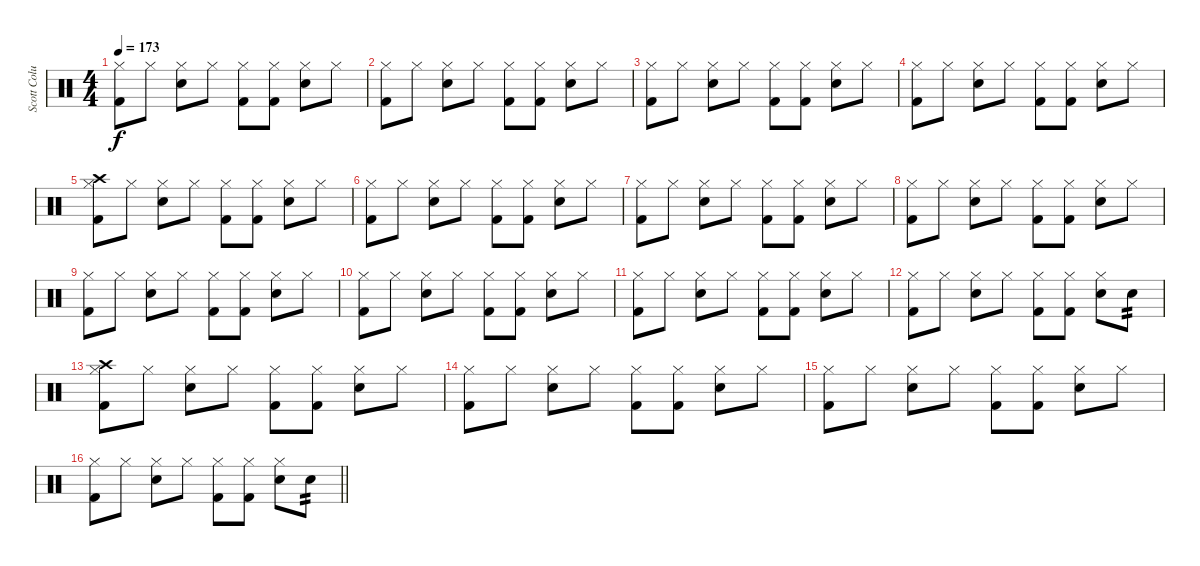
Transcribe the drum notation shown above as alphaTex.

\track ("Scott Columbus" "Scott Colu") {instrument percussion}
\staff {score}
\articulation defaults
\ts (4 4)
\tempo 173
\clef neutral
\ks c
("Kick (hit) 2" "Hi-Hat (closed)").8{dy f} "Hi-Hat (closed)".8 ("Snare (hit) 2" "Hi-Hat (closed)").8 "Hi-Hat (closed)".8 ("Kick (hit) 2" "Hi-Hat (closed)").8 ("Kick (hit) 2" "Hi-Hat (closed)").8 ("Snare (hit) 2" "Hi-Hat (closed)").8 "Hi-Hat (closed)".8 |
("Kick (hit) 2" "Hi-Hat (closed)").8 "Hi-Hat (closed)".8 ("Snare (hit) 2" "Hi-Hat (closed)").8 "Hi-Hat (closed)".8 ("Kick (hit) 2" "Hi-Hat (closed)").8 ("Kick (hit) 2" "Hi-Hat (closed)").8 ("Snare (hit) 2" "Hi-Hat (closed)").8 "Hi-Hat (closed)".8 |
("Kick (hit) 2" "Hi-Hat (closed)").8 "Hi-Hat (closed)".8 ("Snare (hit) 2" "Hi-Hat (closed)").8 "Hi-Hat (closed)".8 ("Kick (hit) 2" "Hi-Hat (closed)").8 ("Kick (hit) 2" "Hi-Hat (closed)").8 ("Snare (hit) 2" "Hi-Hat (closed)").8 "Hi-Hat (closed)".8 |
("Kick (hit) 2" "Hi-Hat (closed)").8 "Hi-Hat (closed)".8 ("Snare (hit) 2" "Hi-Hat (closed)").8 "Hi-Hat (closed)".8 ("Kick (hit) 2" "Hi-Hat (closed)").8 ("Kick (hit) 2" "Hi-Hat (closed)").8 ("Snare (hit) 2" "Hi-Hat (closed)").8 "Hi-Hat (closed)".8 |
("Kick (hit) 2" "Hi-Hat (closed)" "Crash high (hit)").8 "Hi-Hat (closed)".8 ("Snare (hit) 2" "Hi-Hat (closed)").8 "Hi-Hat (closed)".8 ("Kick (hit) 2" "Hi-Hat (closed)").8 ("Kick (hit) 2" "Hi-Hat (closed)").8 ("Snare (hit) 2" "Hi-Hat (closed)").8 "Hi-Hat (closed)".8 |
("Kick (hit) 2" "Hi-Hat (closed)").8 "Hi-Hat (closed)".8 ("Snare (hit) 2" "Hi-Hat (closed)").8 "Hi-Hat (closed)".8 ("Kick (hit) 2" "Hi-Hat (closed)").8 ("Kick (hit) 2" "Hi-Hat (closed)").8 ("Snare (hit) 2" "Hi-Hat (closed)").8 "Hi-Hat (closed)".8 |
("Kick (hit) 2" "Hi-Hat (closed)").8 "Hi-Hat (closed)".8 ("Snare (hit) 2" "Hi-Hat (closed)").8 "Hi-Hat (closed)".8 ("Kick (hit) 2" "Hi-Hat (closed)").8 ("Kick (hit) 2" "Hi-Hat (closed)").8 ("Snare (hit) 2" "Hi-Hat (closed)").8 "Hi-Hat (closed)".8 |
("Kick (hit) 2" "Hi-Hat (closed)").8 "Hi-Hat (closed)".8 ("Snare (hit) 2" "Hi-Hat (closed)").8 "Hi-Hat (closed)".8 ("Kick (hit) 2" "Hi-Hat (closed)").8 ("Kick (hit) 2" "Hi-Hat (closed)").8 ("Snare (hit) 2" "Hi-Hat (closed)").8 "Hi-Hat (closed)".8 |
("Kick (hit) 2" "Hi-Hat (closed)").8 "Hi-Hat (closed)".8 ("Snare (hit) 2" "Hi-Hat (closed)").8 "Hi-Hat (closed)".8 ("Kick (hit) 2" "Hi-Hat (closed)").8 ("Kick (hit) 2" "Hi-Hat (closed)").8 ("Snare (hit) 2" "Hi-Hat (closed)").8 "Hi-Hat (closed)".8 |
("Kick (hit) 2" "Hi-Hat (closed)").8 "Hi-Hat (closed)".8 ("Snare (hit) 2" "Hi-Hat (closed)").8 "Hi-Hat (closed)".8 ("Kick (hit) 2" "Hi-Hat (closed)").8 ("Kick (hit) 2" "Hi-Hat (closed)").8 ("Snare (hit) 2" "Hi-Hat (closed)").8 "Hi-Hat (closed)".8 |
("Kick (hit) 2" "Hi-Hat (closed)").8 "Hi-Hat (closed)".8 ("Snare (hit) 2" "Hi-Hat (closed)").8 "Hi-Hat (closed)".8 ("Kick (hit) 2" "Hi-Hat (closed)").8 ("Kick (hit) 2" "Hi-Hat (closed)").8 ("Snare (hit) 2" "Hi-Hat (closed)").8 "Hi-Hat (closed)".8 |
("Kick (hit) 2" "Hi-Hat (closed)").8 "Hi-Hat (closed)".8 ("Snare (hit) 2" "Hi-Hat (closed)").8 "Hi-Hat (closed)".8 ("Kick (hit) 2" "Hi-Hat (closed)").8 ("Kick (hit) 2" "Hi-Hat (closed)").8 ("Snare (hit) 2" "Hi-Hat (closed)").8 "Snare (hit) 2".8{tp 2} |
("Kick (hit) 2" "Hi-Hat (closed)" "Crash high (hit)").8 "Hi-Hat (closed)".8 ("Snare (hit) 2" "Hi-Hat (closed)").8 "Hi-Hat (closed)".8 ("Kick (hit) 2" "Hi-Hat (closed)").8 ("Kick (hit) 2" "Hi-Hat (closed)").8 ("Snare (hit) 2" "Hi-Hat (closed)").8 "Hi-Hat (closed)".8 |
("Kick (hit) 2" "Hi-Hat (closed)").8 "Hi-Hat (closed)".8 ("Snare (hit) 2" "Hi-Hat (closed)").8 "Hi-Hat (closed)".8 ("Kick (hit) 2" "Hi-Hat (closed)").8 ("Kick (hit) 2" "Hi-Hat (closed)").8 ("Snare (hit) 2" "Hi-Hat (closed)").8 "Hi-Hat (closed)".8 |
("Kick (hit) 2" "Hi-Hat (closed)").8 "Hi-Hat (closed)".8 ("Snare (hit) 2" "Hi-Hat (closed)").8 "Hi-Hat (closed)".8 ("Kick (hit) 2" "Hi-Hat (closed)").8 ("Kick (hit) 2" "Hi-Hat (closed)").8 ("Snare (hit) 2" "Hi-Hat (closed)").8 "Hi-Hat (closed)".8 |
\barLineRight lightlight
("Kick (hit) 2" "Hi-Hat (closed)").8 "Hi-Hat (closed)".8 ("Snare (hit) 2" "Hi-Hat (closed)").8 "Hi-Hat (closed)".8 ("Kick (hit) 2" "Hi-Hat (closed)").8 ("Kick (hit) 2" "Hi-Hat (closed)").8 ("Snare (hit) 2" "Hi-Hat (closed)").8 "Snare (hit) 2".8{tp 2}
